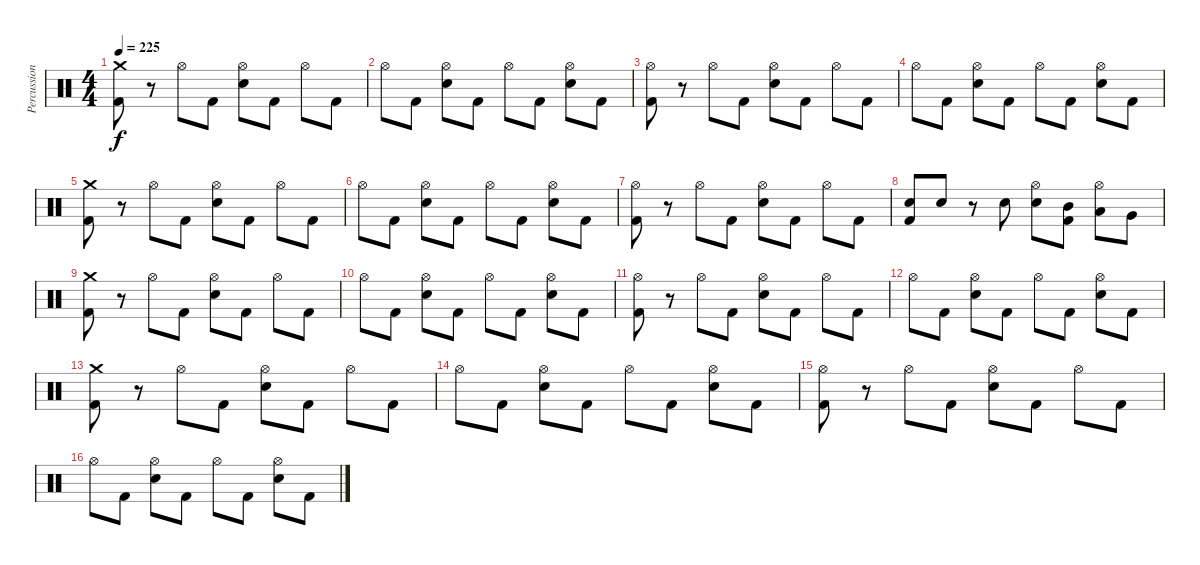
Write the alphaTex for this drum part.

\track ("Percussion" "Percussion") {instrument percussion}
\staff {score}
\articulation defaults
\ts (4 4)
\tempo 225
\clef neutral
\ks c
("Crash medium (hit)" "Kick (hit) 2").8{dy f} r.8 "Hi-Hat (open)".8 "Kick (hit) 2".8 ("Hi-Hat (open)" "Electric Snare (hit)").8 "Kick (hit) 2".8 "Hi-Hat (open)".8 "Kick (hit) 2".8 |
"Hi-Hat (open)".8 "Kick (hit) 2".8 ("Hi-Hat (open)" "Electric Snare (hit)").8 "Kick (hit) 2".8 "Hi-Hat (open)".8 "Kick (hit) 2".8 ("Hi-Hat (open)" "Electric Snare (hit)").8 "Kick (hit) 2".8 |
("Hi-Hat (open)" "Kick (hit) 2").8 r.8 "Hi-Hat (open)".8 "Kick (hit) 2".8 ("Hi-Hat (open)" "Electric Snare (hit)").8 "Kick (hit) 2".8 "Hi-Hat (open)".8 "Kick (hit) 2".8 |
"Hi-Hat (open)".8 "Kick (hit) 2".8 ("Hi-Hat (open)" "Electric Snare (hit)").8 "Kick (hit) 2".8 "Hi-Hat (open)".8 "Kick (hit) 2".8 ("Hi-Hat (open)" "Electric Snare (hit)").8 "Kick (hit) 2".8 |
("Crash medium (hit)" "Kick (hit) 2").8 r.8 "Hi-Hat (open)".8 "Kick (hit) 2".8 ("Hi-Hat (open)" "Electric Snare (hit)").8 "Kick (hit) 2".8 "Hi-Hat (open)".8 "Kick (hit) 2".8 |
"Hi-Hat (open)".8 "Kick (hit) 2".8 ("Hi-Hat (open)" "Electric Snare (hit)").8 "Kick (hit) 2".8 "Hi-Hat (open)".8 "Kick (hit) 2".8 ("Hi-Hat (open)" "Electric Snare (hit)").8 "Kick (hit) 2".8 |
("Hi-Hat (open)" "Kick (hit) 2").8 r.8 "Hi-Hat (open)".8 "Kick (hit) 2".8 ("Hi-Hat (open)" "Electric Snare (hit)").8 "Kick (hit) 2".8 "Hi-Hat (open)".8 "Kick (hit) 2".8 |
("Electric Snare (hit)" "Kick (hit) 2").8 "Electric Snare (hit)".8 r.8 "Electric Snare (hit)".8 ("Hi-Hat (open)" "Electric Snare (hit)").8 ("Mid Tom (hit)" "Kick (hit) 2").8 ("Hi-Hat (open)" "Low Tom (hit)").8 "Very Low Tom (hit)".8 |
("Crash medium (hit)" "Kick (hit) 2").8 r.8 "Hi-Hat (open)".8 "Kick (hit) 2".8 ("Hi-Hat (open)" "Electric Snare (hit)").8 "Kick (hit) 2".8 "Hi-Hat (open)".8 "Kick (hit) 2".8 |
"Hi-Hat (open)".8 "Kick (hit) 2".8 ("Hi-Hat (open)" "Electric Snare (hit)").8 "Kick (hit) 2".8 "Hi-Hat (open)".8 "Kick (hit) 2".8 ("Hi-Hat (open)" "Electric Snare (hit)").8 "Kick (hit) 2".8 |
("Hi-Hat (open)" "Kick (hit) 2").8 r.8 "Hi-Hat (open)".8 "Kick (hit) 2".8 ("Hi-Hat (open)" "Electric Snare (hit)").8 "Kick (hit) 2".8 "Hi-Hat (open)".8 "Kick (hit) 2".8 |
"Hi-Hat (open)".8 "Kick (hit) 2".8 ("Hi-Hat (open)" "Electric Snare (hit)").8 "Kick (hit) 2".8 "Hi-Hat (open)".8 "Kick (hit) 2".8 ("Hi-Hat (open)" "Electric Snare (hit)").8 "Kick (hit) 2".8 |
("Crash medium (hit)" "Kick (hit) 2").8 r.8 "Hi-Hat (open)".8 "Kick (hit) 2".8 ("Hi-Hat (open)" "Electric Snare (hit)").8 "Kick (hit) 2".8 "Hi-Hat (open)".8 "Kick (hit) 2".8 |
"Hi-Hat (open)".8 "Kick (hit) 2".8 ("Hi-Hat (open)" "Electric Snare (hit)").8 "Kick (hit) 2".8 "Hi-Hat (open)".8 "Kick (hit) 2".8 ("Hi-Hat (open)" "Electric Snare (hit)").8 "Kick (hit) 2".8 |
("Hi-Hat (open)" "Kick (hit) 2").8 r.8 "Hi-Hat (open)".8 "Kick (hit) 2".8 ("Hi-Hat (open)" "Electric Snare (hit)").8 "Kick (hit) 2".8 "Hi-Hat (open)".8 "Kick (hit) 2".8 |
"Hi-Hat (open)".8 "Kick (hit) 2".8 ("Hi-Hat (open)" "Electric Snare (hit)").8 "Kick (hit) 2".8 "Hi-Hat (open)".8 "Kick (hit) 2".8 ("Hi-Hat (open)" "Electric Snare (hit)").8 "Kick (hit) 2".8
